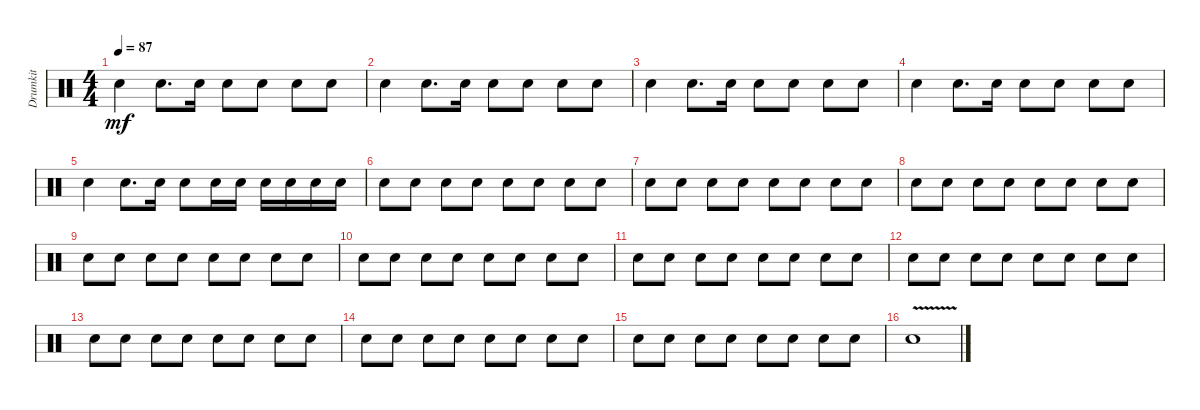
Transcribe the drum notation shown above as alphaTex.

\track ("Drumkit" "Drumkit") {instrument percussion}
\staff {score}
\articulation defaults
\ts (4 4)
\tempo 87
\clef neutral
\ks c "Snare (hit)".4{dy mf} "Snare (hit)".8{d} "Snare (hit)".16 "Snare (hit)".8 "Snare (hit)".8 "Snare (hit)".8 "Snare (hit)".8
|
"Snare (hit)".4 "Snare (hit)".8{d} "Snare (hit)".16 "Snare (hit)".8 "Snare (hit)".8 "Snare (hit)".8 "Snare (hit)".8 |
"Snare (hit)".4 "Snare (hit)".8{d} "Snare (hit)".16 "Snare (hit)".8 "Snare (hit)".8 "Snare (hit)".8 "Snare (hit)".8 |
"Snare (hit)".4 "Snare (hit)".8{d} "Snare (hit)".16 "Snare (hit)".8 "Snare (hit)".8 "Snare (hit)".8 "Snare (hit)".8 |
"Snare (hit)".4 "Snare (hit)".8{d} "Snare (hit)".16 "Snare (hit)".8 "Snare (hit)".16 "Snare (hit)".16 "Snare (hit)".16 "Snare (hit)".16 "Snare (hit)".16 "Snare (hit)".16 |
"Snare (hit)".8 "Snare (hit)".8 "Snare (hit)".8 "Snare (hit)".8 "Snare (hit)".8 "Snare (hit)".8 "Snare (hit)".8 "Snare (hit)".8 |
"Snare (hit)".8 "Snare (hit)".8 "Snare (hit)".8 "Snare (hit)".8 "Snare (hit)".8 "Snare (hit)".8 "Snare (hit)".8 "Snare (hit)".8 |
"Snare (hit)".8 "Snare (hit)".8 "Snare (hit)".8 "Snare (hit)".8 "Snare (hit)".8 "Snare (hit)".8 "Snare (hit)".8 "Snare (hit)".8 |
"Snare (hit)".8 "Snare (hit)".8 "Snare (hit)".8 "Snare (hit)".8 "Snare (hit)".8 "Snare (hit)".8 "Snare (hit)".8 "Snare (hit)".8 |
"Snare (hit)".8 "Snare (hit)".8 "Snare (hit)".8 "Snare (hit)".8 "Snare (hit)".8 "Snare (hit)".8 "Snare (hit)".8 "Snare (hit)".8 |
"Snare (hit)".8 "Snare (hit)".8 "Snare (hit)".8 "Snare (hit)".8 "Snare (hit)".8 "Snare (hit)".8 "Snare (hit)".8 "Snare (hit)".8 |
"Snare (hit)".8 "Snare (hit)".8 "Snare (hit)".8 "Snare (hit)".8 "Snare (hit)".8 "Snare (hit)".8 "Snare (hit)".8 "Snare (hit)".8 |
"Snare (hit)".8 "Snare (hit)".8 "Snare (hit)".8 "Snare (hit)".8 "Snare (hit)".8 "Snare (hit)".8 "Snare (hit)".8 "Snare (hit)".8 |
"Snare (hit)".8 "Snare (hit)".8 "Snare (hit)".8 "Snare (hit)".8 "Snare (hit)".8 "Snare (hit)".8 "Snare (hit)".8 "Snare (hit)".8 |
"Snare (hit)".8 "Snare (hit)".8 "Snare (hit)".8 "Snare (hit)".8 "Snare (hit)".8 "Snare (hit)".8 "Snare (hit)".8 "Snare (hit)".8 |
"Snare (hit)"{v}.1
